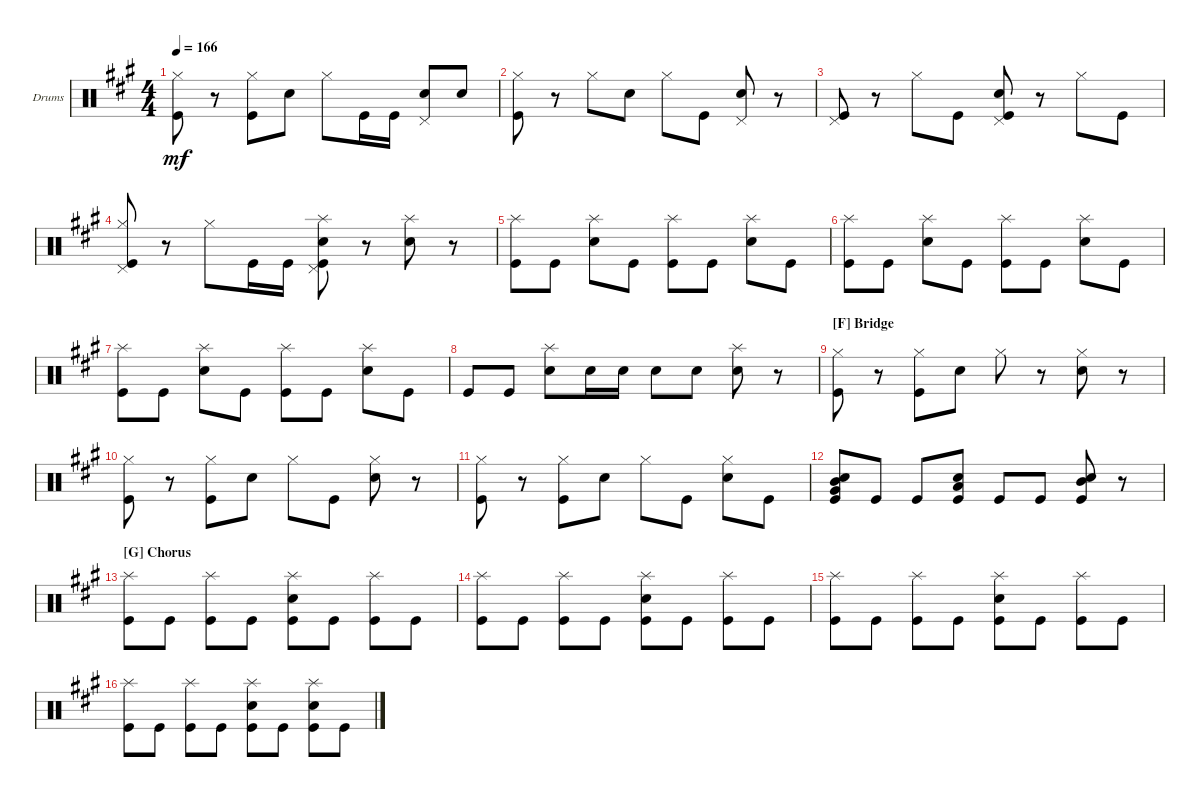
\defaultSystemsLayout 4
\bracketExtendMode groupsimilarinstruments
\firstSystemTrackNameOrientation horizontal
\otherSystemsTrackNameOrientation horizontal
\track ("Drumkit" "Drums") {instrument percussion}
\staff {score}
\articulation defaults
\ts (4 4)
\tempo 166
\clef neutral
\ks a
("Kick (hit)" "Hi-Hat (closed)").8{dy mf} r.8 ("Hi-Hat (closed)" "Kick (hit)").8 "Snare (hit) 2".8 "Hi-Hat (closed)".8 "Kick (hit)".16 "Kick (hit)".16 ("Pedal Hi-Hat (hit)" "Snare (hit) 2").8 "Snare (hit) 2".8 |
("Kick (hit)" "Hi-Hat (closed)").8 r.8 "Hi-Hat (closed)".8 "Snare (hit) 2".8 "Hi-Hat (closed)".8 "Kick (hit)".8 ("Pedal Hi-Hat (hit)" "Snare (hit) 2").8 r.8 |
("Kick (hit)" "Pedal Hi-Hat (hit)").8 r.8 "Hi-Hat (closed)".8 "Kick (hit)".8 ("Kick (hit)" "Pedal Hi-Hat (hit)" "Snare (hit) 2").8 r.8 "Hi-Hat (closed)".8 "Kick (hit)".8 |
("Kick (hit)" "Pedal Hi-Hat (hit)" "Hi-Hat (closed)").8 r.8 "Hi-Hat (closed)".8 "Kick (hit)".16 "Kick (hit)".16 ("Kick (hit)" "Pedal Hi-Hat (hit)" "Snare (hit) 2" "Splash (hit)").8 r.8 ("Splash (hit)" "Snare (hit) 2").8 r.8 |
("Kick (hit)" "Splash (hit)").8 "Kick (hit)".8 ("Snare (hit) 2" "Splash (hit)").8 "Kick (hit)".8 ("Kick (hit)" "Splash (hit)").8 "Kick (hit)".8 ("Snare (hit) 2" "Splash (hit)").8 "Kick (hit)".8 |
("Kick (hit)" "Splash (hit)").8 "Kick (hit)".8 ("Snare (hit) 2" "Splash (hit)").8 "Kick (hit)".8 ("Kick (hit)" "Splash (hit)").8 "Kick (hit)".8 ("Snare (hit) 2" "Splash (hit)").8 "Kick (hit)".8 |
("Kick (hit)" "Splash (hit)").8 "Kick (hit)".8 ("Snare (hit) 2" "Splash (hit)").8 "Kick (hit)".8 ("Kick (hit)" "Splash (hit)").8 "Kick (hit)".8 ("Snare (hit) 2" "Splash (hit)").8 "Kick (hit)".8 |
"Kick (hit)".8 "Kick (hit)".8 ("Snare (hit) 2" "Splash (hit)").8 "Snare (hit) 2".16 "Snare (hit) 2".16 "Snare (hit) 2".8 "Snare (hit) 2".8 ("Splash (hit)" "Snare (hit) 2").8 r.8 |
\section ("F" "Bridge")
("Kick (hit)" "Hi-Hat (closed)").8 r.8 ("Kick (hit)" "Hi-Hat (closed)").8 "Snare (hit) 2".8 "Hi-Hat (closed)".8 r.8 ("Snare (hit) 2" "Hi-Hat (closed)").8 r.8 |
("Kick (hit)" "Hi-Hat (closed)").8 r.8 ("Kick (hit)" "Hi-Hat (closed)").8 "Snare (hit) 2".8 "Hi-Hat (closed)".8 "Kick (hit)".8 ("Snare (hit) 2" "Hi-Hat (closed)").8 r.8 |
("Kick (hit)" "Hi-Hat (closed)").8 r.8 ("Kick (hit)" "Hi-Hat (closed)").8 "Snare (hit) 2".8 "Hi-Hat (closed)".8 "Kick (hit)".8 ("Snare (hit) 2" "Hi-Hat (closed)").8 "Kick (hit)".8 |
("Kick (hit)" "Snare (hit) 2" "Very Low Tom (hit)" "Mid Tom (hit)").8 "Kick (hit)".8 "Kick (hit)".8 ("Kick (hit)" "Snare (hit) 2" "Low Tom (hit)").8 "Kick (hit)".8 "Kick (hit)".8 ("Kick (hit)" "Snare (hit) 2" "Mid Tom (hit)").8 r.8 |
\section ("G" "Chorus")
("Kick (hit)" "Splash (hit)").8 "Kick (hit)".8 ("Kick (hit)" "Splash (hit)").8 "Kick (hit)".8 ("Kick (hit)" "Splash (hit)" "Snare (hit) 2").8 "Kick (hit)".8 ("Kick (hit)" "Splash (hit)").8 "Kick (hit)".8 |
("Kick (hit)" "Splash (hit)").8 "Kick (hit)".8 ("Kick (hit)" "Splash (hit)").8 "Kick (hit)".8 ("Kick (hit)" "Splash (hit)" "Snare (hit) 2").8 "Kick (hit)".8 ("Kick (hit)" "Splash (hit)").8 "Kick (hit)".8 |
("Kick (hit)" "Splash (hit)").8 "Kick (hit)".8 ("Kick (hit)" "Splash (hit)").8 "Kick (hit)".8 ("Kick (hit)" "Splash (hit)" "Snare (hit) 2").8 "Kick (hit)".8 ("Kick (hit)" "Splash (hit)").8 "Kick (hit)".8 |
("Kick (hit)" "Splash (hit)").8 "Kick (hit)".8 ("Kick (hit)" "Splash (hit)").8 "Kick (hit)".8 ("Kick (hit)" "Splash (hit)" "Snare (hit) 2").8 "Kick (hit)".8 ("Kick (hit)" "Splash (hit)" "Snare (hit) 2").8 "Kick (hit)".8
